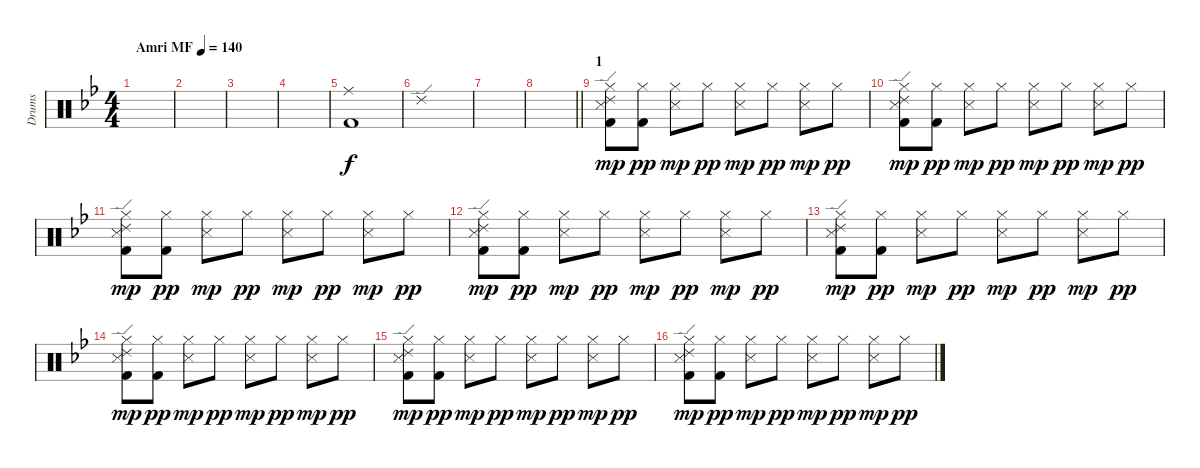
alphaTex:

\track ("Drums" "Drums") {instrument percussion}
\staff {score}
\articulation defaults
\ts (4 4)
\tempo (140 "Amri MF")
\clef neutral
\ks bb
|
|
|
|
("Kick (hit) 2" "Ride (middle)").1 |
"Ride (edge) 2".1 |
|
\barLineRight lightlight
|
\section ("" "1")
("Ride (edge) 2" "Kick (hit) 2" "Snare (side stick) 3" "Hi-Hat (closed)").8{dy mp} ("Kick (hit) 2" "Hi-Hat (closed)").8{dy pp} ("Snare (side stick) 3" "Hi-Hat (closed)").8{dy mp} "Hi-Hat (closed)".8{dy pp} ("Hi-Hat (closed)" "Snare (side stick) 3").8{dy mp} "Hi-Hat (closed)".8{dy pp} ("Hi-Hat (closed)" "Snare (side stick) 3").8{dy mp} "Hi-Hat (closed)".8{dy pp} |
("Ride (edge) 2" "Kick (hit) 2" "Snare (side stick) 3" "Hi-Hat (closed)").8{dy mp} ("Kick (hit) 2" "Hi-Hat (closed)").8{dy pp} ("Snare (side stick) 3" "Hi-Hat (closed)").8{dy mp} "Hi-Hat (closed)".8{dy pp} ("Hi-Hat (closed)" "Snare (side stick) 3").8{dy mp} "Hi-Hat (closed)".8{dy pp} ("Hi-Hat (closed)" "Snare (side stick) 3").8{dy mp} "Hi-Hat (closed)".8{dy pp} |
("Ride (edge) 2" "Kick (hit) 2" "Snare (side stick) 3" "Hi-Hat (closed)").8{dy mp} ("Kick (hit) 2" "Hi-Hat (closed)").8{dy pp} ("Snare (side stick) 3" "Hi-Hat (closed)").8{dy mp} "Hi-Hat (closed)".8{dy pp} ("Hi-Hat (closed)" "Snare (side stick) 3").8{dy mp} "Hi-Hat (closed)".8{dy pp} ("Hi-Hat (closed)" "Snare (side stick) 3").8{dy mp} "Hi-Hat (closed)".8{dy pp} |
("Ride (edge) 2" "Kick (hit) 2" "Snare (side stick) 3" "Hi-Hat (closed)").8{dy mp} ("Kick (hit) 2" "Hi-Hat (closed)").8{dy pp} ("Snare (side stick) 3" "Hi-Hat (closed)").8{dy mp} "Hi-Hat (closed)".8{dy pp} ("Hi-Hat (closed)" "Snare (side stick) 3").8{dy mp} "Hi-Hat (closed)".8{dy pp} ("Hi-Hat (closed)" "Snare (side stick) 3").8{dy mp} "Hi-Hat (closed)".8{dy pp} |
("Ride (edge) 2" "Kick (hit) 2" "Snare (side stick) 3" "Hi-Hat (closed)").8{dy mp} ("Kick (hit) 2" "Hi-Hat (closed)").8{dy pp} ("Snare (side stick) 3" "Hi-Hat (closed)").8{dy mp} "Hi-Hat (closed)".8{dy pp} ("Hi-Hat (closed)" "Snare (side stick) 3").8{dy mp} "Hi-Hat (closed)".8{dy pp} ("Hi-Hat (closed)" "Snare (side stick) 3").8{dy mp} "Hi-Hat (closed)".8{dy pp} |
("Ride (edge) 2" "Kick (hit) 2" "Snare (side stick) 3" "Hi-Hat (closed)").8{dy mp} ("Kick (hit) 2" "Hi-Hat (closed)").8{dy pp} ("Snare (side stick) 3" "Hi-Hat (closed)").8{dy mp} "Hi-Hat (closed)".8{dy pp} ("Hi-Hat (closed)" "Snare (side stick) 3").8{dy mp} "Hi-Hat (closed)".8{dy pp} ("Hi-Hat (closed)" "Snare (side stick) 3").8{dy mp} "Hi-Hat (closed)".8{dy pp} |
("Ride (edge) 2" "Kick (hit) 2" "Snare (side stick) 3" "Hi-Hat (closed)").8{dy mp} ("Kick (hit) 2" "Hi-Hat (closed)").8{dy pp} ("Snare (side stick) 3" "Hi-Hat (closed)").8{dy mp} "Hi-Hat (closed)".8{dy pp} ("Hi-Hat (closed)" "Snare (side stick) 3").8{dy mp} "Hi-Hat (closed)".8{dy pp} ("Hi-Hat (closed)" "Snare (side stick) 3").8{dy mp} "Hi-Hat (closed)".8{dy pp} |
("Ride (edge) 2" "Kick (hit) 2" "Snare (side stick) 3" "Hi-Hat (closed)").8{dy mp} ("Kick (hit) 2" "Hi-Hat (closed)").8{dy pp} ("Snare (side stick) 3" "Hi-Hat (closed)").8{dy mp} "Hi-Hat (closed)".8{dy pp} ("Hi-Hat (closed)" "Snare (side stick) 3").8{dy mp} "Hi-Hat (closed)".8{dy pp} ("Hi-Hat (closed)" "Snare (side stick) 3").8{dy mp} "Hi-Hat (closed)".8{dy pp}
